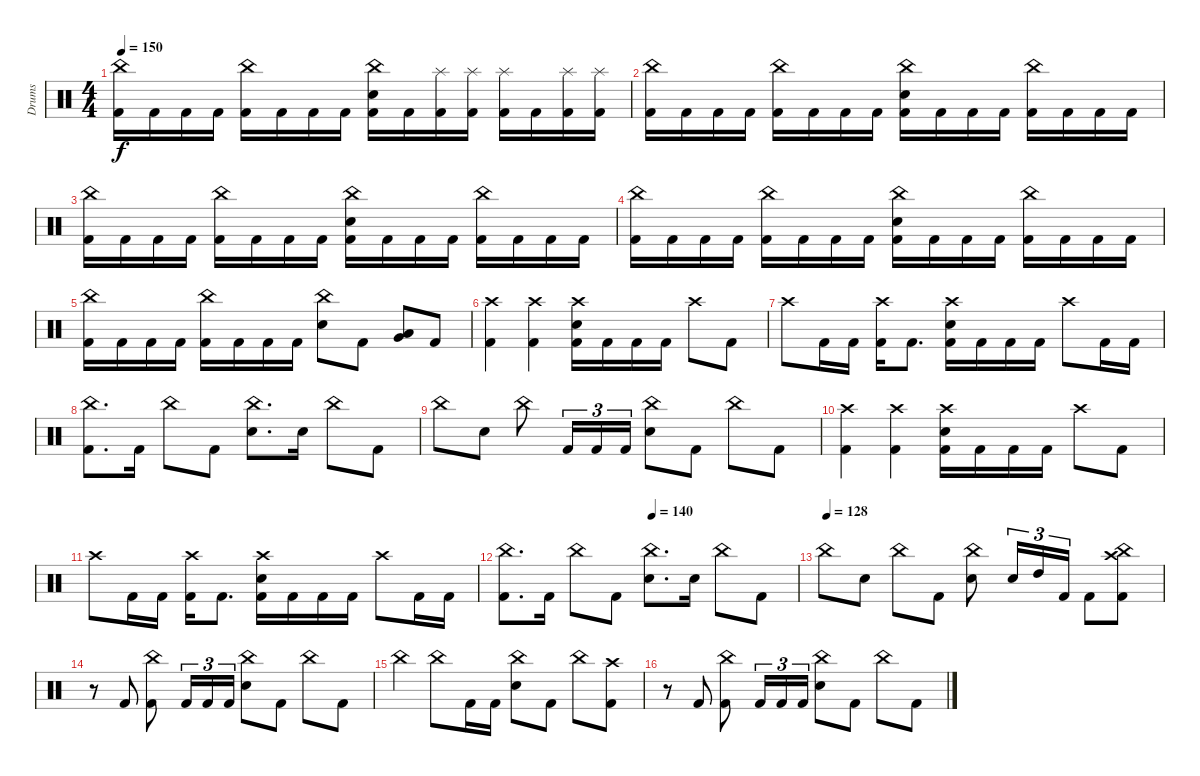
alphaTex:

\track ("Drums" "Drums") {instrument percussion}
\staff {score}
\articulation defaults
\ts (4 4)
\tempo 150
\clef neutral
\ks c
("China (hit)" "Kick (hit) 2").16{dy f} "Kick (hit) 2".16 "Kick (hit) 2".16 "Kick (hit) 2".16 ("China (hit)" "Kick (hit) 2").16 "Kick (hit) 2".16 "Kick (hit) 2".16 "Kick (hit) 2".16 ("China (hit)" "Snare (hit) 2" "Kick (hit) 2").16 "Kick (hit) 2".16 ("Splash (hit)" "Kick (hit) 2").16 ("Splash (hit)" "Kick (hit) 2").16 ("Splash (hit)" "Kick (hit) 2").16 "Kick (hit) 2".16 ("Splash (hit)" "Kick (hit) 2").16 ("Splash (hit)" "Kick (hit) 2").16 |
("China (hit)" "Kick (hit) 2").16 "Kick (hit) 2".16 "Kick (hit) 2".16 "Kick (hit) 2".16 ("China (hit)" "Kick (hit) 2").16 "Kick (hit) 2".16 "Kick (hit) 2".16 "Kick (hit) 2".16 ("China (hit)" "Snare (hit) 2" "Kick (hit) 2").16 "Kick (hit) 2".16 "Kick (hit) 2".16 "Kick (hit) 2".16 ("China (hit)" "Kick (hit) 2").16 "Kick (hit) 2".16 "Kick (hit) 2".16 "Kick (hit) 2".16 |
("China (hit)" "Kick (hit) 2").16 "Kick (hit) 2".16 "Kick (hit) 2".16 "Kick (hit) 2".16 ("China (hit)" "Kick (hit) 2").16 "Kick (hit) 2".16 "Kick (hit) 2".16 "Kick (hit) 2".16 ("China (hit)" "Snare (hit) 2" "Kick (hit) 2").16 "Kick (hit) 2".16 "Kick (hit) 2".16 "Kick (hit) 2".16 ("China (hit)" "Kick (hit) 2").16 "Kick (hit) 2".16 "Kick (hit) 2".16 "Kick (hit) 2".16 |
("China (hit)" "Kick (hit) 2").16 "Kick (hit) 2".16 "Kick (hit) 2".16 "Kick (hit) 2".16 ("China (hit)" "Kick (hit) 2").16 "Kick (hit) 2".16 "Kick (hit) 2".16 "Kick (hit) 2".16 ("China (hit)" "Snare (hit) 2" "Kick (hit) 2").16 "Kick (hit) 2".16 "Kick (hit) 2".16 "Kick (hit) 2".16 ("China (hit)" "Kick (hit) 2").16 "Kick (hit) 2".16 "Kick (hit) 2".16 "Kick (hit) 2".16 |
("China (hit)" "Kick (hit) 2").16 "Kick (hit) 2".16 "Kick (hit) 2".16 "Kick (hit) 2".16 ("China (hit)" "Kick (hit) 2").16 "Kick (hit) 2".16 "Kick (hit) 2".16 "Kick (hit) 2".16 ("China (hit)" "Snare (hit) 2").8 "Kick (hit) 2".8 ("Low Tom (hit)" "Very Low Tom (hit)").8 "Kick (hit) 2".8 |
("Crash high (hit)" "Kick (hit) 2").4 ("Crash high (hit)" "Kick (hit) 2").4 ("Crash high (hit)" "Snare (hit) 2" "Kick (hit) 2").16 "Kick (hit) 2".16 "Kick (hit) 2".16 "Kick (hit) 2".16 "Crash high (hit)".8 "Kick (hit) 2".8 |
"Crash high (hit)".8 "Kick (hit) 2".16 "Kick (hit) 2".16 ("Crash high (hit)" "Kick (hit) 2").16 "Kick (hit) 2".8{d} ("Crash high (hit)" "Snare (hit) 2" "Kick (hit) 2").16 "Kick (hit) 2".16 "Kick (hit) 2".16 "Kick (hit) 2".16 "Crash high (hit)".8 "Kick (hit) 2".16 "Kick (hit) 2".16 |
("China (hit)" "Kick (hit) 2").8{d} "Kick (hit) 2".16 "China (hit)".8 "Kick (hit) 2".8 ("China (hit)" "Snare (hit) 2").8{d} "Snare (hit) 2".16 "China (hit)".8 "Kick (hit) 2".8 |
"China (hit)".8 "Snare (hit) 2".8 "China (hit)".8 "Kick (hit) 2".16{tu (3 2)} "Kick (hit) 2".16{tu (3 2)} "Kick (hit) 2".16{tu (3 2)} ("China (hit)" "Snare (hit) 2").8 "Kick (hit) 2".8 "China (hit)".8 "Kick (hit) 2".8 |
("Crash high (hit)" "Kick (hit) 2").4 ("Crash high (hit)" "Kick (hit) 2").4 ("Crash high (hit)" "Snare (hit) 2" "Kick (hit) 2").16 "Kick (hit) 2".16 "Kick (hit) 2".16 "Kick (hit) 2".16 "Crash high (hit)".8 "Kick (hit) 2".8 |
"Crash high (hit)".8 "Kick (hit) 2".16 "Kick (hit) 2".16 ("Crash high (hit)" "Kick (hit) 2").16 "Kick (hit) 2".8{d} ("Crash high (hit)" "Snare (hit) 2" "Kick (hit) 2").16 "Kick (hit) 2".16 "Kick (hit) 2".16 "Kick (hit) 2".16 "Crash high (hit)".8 "Kick (hit) 2".16 "Kick (hit) 2".16 |
\tempo (140 0.5)
("China (hit)" "Kick (hit) 2").8{d} "Kick (hit) 2".16 "China (hit)".8 "Kick (hit) 2".8 ("China (hit)" "Snare (hit) 2").8{d} "Snare (hit) 2".16 "China (hit)".8 "Kick (hit) 2".8 |
\tempo (128)
"China (hit)".8 "Snare (hit) 2".8 "China (hit)".8 "Kick (hit) 2".8 ("China (hit)" "Snare (hit) 2").8 "Snare (hit) 2".16{tu (3 2)} "High Tom (hit)".16{tu (3 2)} "Kick (hit) 2".16{tu (3 2)} "Kick (hit) 2".8 ("Crash high (hit)" "China (hit)" "Kick (hit) 2").8 |
r.8 "Kick (hit) 2".8 ("China (hit)" "Kick (hit) 2").8 "Kick (hit) 2".16{tu (3 2)} "Kick (hit) 2".16{tu (3 2)} "Kick (hit) 2".16{tu (3 2)} ("China (hit)" "Snare (hit) 2").8 "Kick (hit) 2".8 "China (hit)".8 "Kick (hit) 2".8 |
"China (hit)".4 "China (hit)".8 "Kick (hit) 2".16 "Kick (hit) 2".16 ("China (hit)" "Snare (hit) 2").8 "Kick (hit) 2".8 "China (hit)".8 ("Crash high (hit)" "Kick (hit) 2").8 |
r.8 "Kick (hit) 2".8 ("China (hit)" "Kick (hit) 2").8 "Kick (hit) 2".16{tu (3 2)} "Kick (hit) 2".16{tu (3 2)} "Kick (hit) 2".16{tu (3 2)} ("China (hit)" "Snare (hit) 2").8 "Kick (hit) 2".8 "China (hit)".8 "Kick (hit) 2".8
